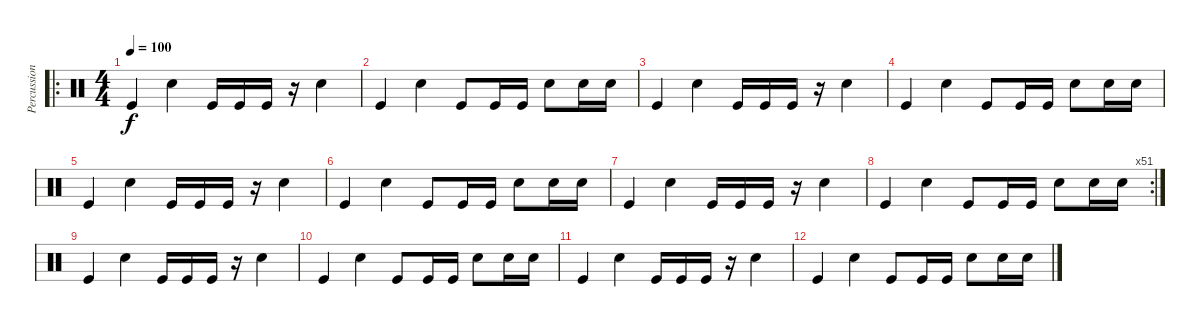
\track ("Percussions" "Percussion") {instrument percussion}
\staff {score}
\articulation defaults
\ro
\ts (4 4)
\tempo 100
\clef neutral
\ks c "Kick (hit)".4{dy f} "Electric Snare (hit)".4 "Kick (hit)".16 "Kick (hit)".16 "Kick (hit)".16
r.16 "Electric Snare (hit)".4 |
"Kick (hit)".4 "Electric Snare (hit)".4 "Kick (hit)".8 "Kick (hit)".16 "Kick (hit)".16 "Electric Snare (hit)".8 "Electric Snare (hit)".16 "Electric Snare (hit)".16 |
"Kick (hit)".4 "Electric Snare (hit)".4 "Kick (hit)".16 "Kick (hit)".16 "Kick (hit)".16 r.16 "Electric Snare (hit)".4 |
"Kick (hit)".4 "Electric Snare (hit)".4 "Kick (hit)".8 "Kick (hit)".16 "Kick (hit)".16 "Electric Snare (hit)".8 "Electric Snare (hit)".16 "Electric Snare (hit)".16 |
"Kick (hit)".4 "Electric Snare (hit)".4 "Kick (hit)".16 "Kick (hit)".16 "Kick (hit)".16 r.16 "Electric Snare (hit)".4 |
"Kick (hit)".4 "Electric Snare (hit)".4 "Kick (hit)".8 "Kick (hit)".16 "Kick (hit)".16 "Electric Snare (hit)".8 "Electric Snare (hit)".16 "Electric Snare (hit)".16 |
"Kick (hit)".4 "Electric Snare (hit)".4 "Kick (hit)".16 "Kick (hit)".16 "Kick (hit)".16 r.16 "Electric Snare (hit)".4 |
\rc 51 "Kick (hit)".4 "Electric Snare (hit)".4 "Kick (hit)".8 "Kick (hit)".16 "Kick (hit)".16 "Electric Snare (hit)".8 "Electric Snare (hit)".16 "Electric Snare (hit)".16
|
"Kick (hit)".4 "Electric Snare (hit)".4 "Kick (hit)".16 "Kick (hit)".16 "Kick (hit)".16 r.16 "Electric Snare (hit)".4 |
"Kick (hit)".4 "Electric Snare (hit)".4 "Kick (hit)".8 "Kick (hit)".16 "Kick (hit)".16 "Electric Snare (hit)".8 "Electric Snare (hit)".16 "Electric Snare (hit)".16 |
"Kick (hit)".4 "Electric Snare (hit)".4 "Kick (hit)".16 "Kick (hit)".16 "Kick (hit)".16 r.16 "Electric Snare (hit)".4 |
"Kick (hit)".4 "Electric Snare (hit)".4 "Kick (hit)".8 "Kick (hit)".16 "Kick (hit)".16 "Electric Snare (hit)".8 "Electric Snare (hit)".16 "Electric Snare (hit)".16
